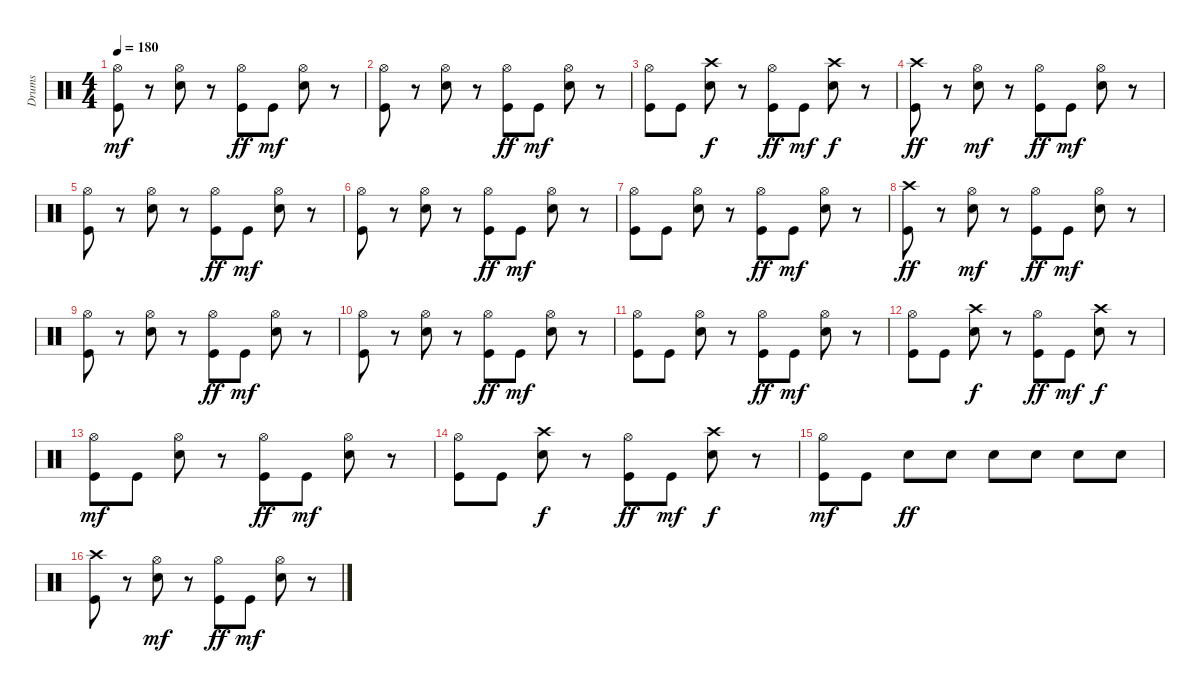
\track ("Drums" "Drums") {instrument percussion}
\staff {score}
\articulation defaults
\ts (4 4)
\tempo 180
\clef neutral
\ks c
("Kick (hit)" "Hi-Hat (open)").8{dy mf} r.8 ("Hi-Hat (open)" "Snare (hit) 2").8 r.8 ("Hi-Hat (open)" "Kick (hit)").8{dy ff} "Kick (hit)".8{dy mf} ("Snare (hit) 2" "Hi-Hat (open)").8 r.8 |
("Kick (hit)" "Hi-Hat (open)").8 r.8 ("Hi-Hat (open)" "Snare (hit) 2").8 r.8 ("Hi-Hat (open)" "Kick (hit)").8{dy ff} "Kick (hit)".8{dy mf} ("Snare (hit) 2" "Hi-Hat (open)").8 r.8 |
("Kick (hit)" "Hi-Hat (open)").8 "Kick (hit)".8 ("Crash high (hit)" "Snare (hit) 2").8{dy f} r.8 ("Hi-Hat (open)" "Kick (hit)").8{dy ff} "Kick (hit)".8{dy mf} ("Crash high (hit)" "Snare (hit) 2").8{dy f} r.8 |
("Crash high (hit)" "Kick (hit)").8{dy ff} r.8 ("Hi-Hat (open)" "Snare (hit) 2").8{dy mf} r.8 ("Hi-Hat (open)" "Kick (hit)").8{dy ff} "Kick (hit)".8{dy mf} ("Hi-Hat (open)" "Snare (hit) 2").8 r.8 |
("Kick (hit)" "Hi-Hat (open)").8 r.8 ("Hi-Hat (open)" "Snare (hit) 2").8 r.8 ("Hi-Hat (open)" "Kick (hit)").8{dy ff} "Kick (hit)".8{dy mf} ("Snare (hit) 2" "Hi-Hat (open)").8 r.8 |
("Kick (hit)" "Hi-Hat (open)").8 r.8 ("Hi-Hat (open)" "Snare (hit) 2").8 r.8 ("Hi-Hat (open)" "Kick (hit)").8{dy ff} "Kick (hit)".8{dy mf} ("Snare (hit) 2" "Hi-Hat (open)").8 r.8 |
("Kick (hit)" "Hi-Hat (open)").8 "Kick (hit)".8 ("Hi-Hat (open)" "Snare (hit) 2").8 r.8 ("Hi-Hat (open)" "Kick (hit)").8{dy ff} "Kick (hit)".8{dy mf} ("Hi-Hat (open)" "Snare (hit) 2").8 r.8 |
("Crash high (hit)" "Kick (hit)").8{dy ff} r.8 ("Hi-Hat (open)" "Snare (hit) 2").8{dy mf} r.8 ("Hi-Hat (open)" "Kick (hit)").8{dy ff} "Kick (hit)".8{dy mf} ("Hi-Hat (open)" "Snare (hit) 2").8 r.8 |
("Kick (hit)" "Hi-Hat (open)").8 r.8 ("Hi-Hat (open)" "Snare (hit) 2").8 r.8 ("Hi-Hat (open)" "Kick (hit)").8{dy ff} "Kick (hit)".8{dy mf} ("Snare (hit) 2" "Hi-Hat (open)").8 r.8 |
("Kick (hit)" "Hi-Hat (open)").8 r.8 ("Hi-Hat (open)" "Snare (hit) 2").8 r.8 ("Hi-Hat (open)" "Kick (hit)").8{dy ff} "Kick (hit)".8{dy mf} ("Snare (hit) 2" "Hi-Hat (open)").8 r.8 |
("Kick (hit)" "Hi-Hat (open)").8 "Kick (hit)".8 ("Hi-Hat (open)" "Snare (hit) 2").8 r.8 ("Hi-Hat (open)" "Kick (hit)").8{dy ff} "Kick (hit)".8{dy mf} ("Hi-Hat (open)" "Snare (hit) 2").8 r.8 |
("Kick (hit)" "Hi-Hat (open)").8 "Kick (hit)".8 ("Crash high (hit)" "Snare (hit) 2").8{dy f} r.8 ("Hi-Hat (open)" "Kick (hit)").8{dy ff} "Kick (hit)".8{dy mf} ("Crash high (hit)" "Snare (hit) 2").8{dy f} r.8 |
("Kick (hit)" "Hi-Hat (open)").8{dy mf} "Kick (hit)".8 ("Hi-Hat (open)" "Snare (hit) 2").8 r.8 ("Hi-Hat (open)" "Kick (hit)").8{dy ff} "Kick (hit)".8{dy mf} ("Hi-Hat (open)" "Snare (hit) 2").8 r.8 |
("Kick (hit)" "Hi-Hat (open)").8 "Kick (hit)".8 ("Crash high (hit)" "Snare (hit) 2").8{dy f} r.8 ("Hi-Hat (open)" "Kick (hit)").8{dy ff} "Kick (hit)".8{dy mf} ("Crash high (hit)" "Snare (hit) 2").8{dy f} r.8 |
("Kick (hit)" "Hi-Hat (open)").8{dy mf} "Kick (hit)".8 "Snare (hit) 2".8{dy ff} "Snare (hit) 2".8 "Snare (hit) 2".8 "Snare (hit) 2".8 "Snare (hit) 2".8 "Snare (hit) 2".8 |
("Crash high (hit)" "Kick (hit)").8 r.8 ("Hi-Hat (open)" "Snare (hit) 2").8{dy mf} r.8 ("Hi-Hat (open)" "Kick (hit)").8{dy ff} "Kick (hit)".8{dy mf} ("Hi-Hat (open)" "Snare (hit) 2").8 r.8
